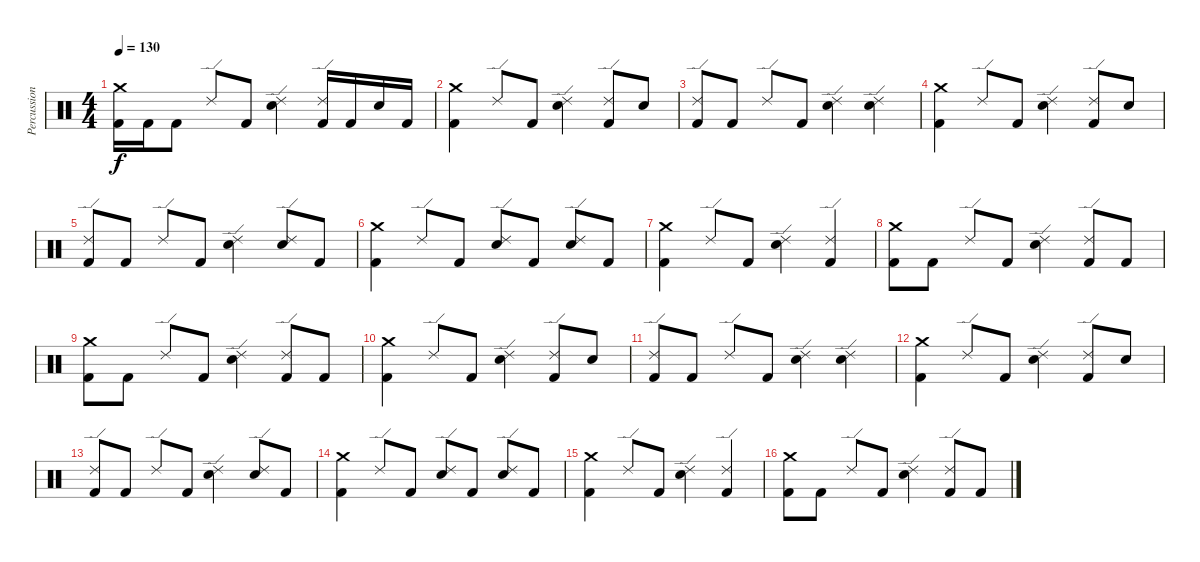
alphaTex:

\track ("Percussion" "Percussion") {instrument percussion}
\staff {score}
\articulation defaults
\ts (4 4)
\tempo 130
\clef neutral
\ks c
("Crash medium (hit)" "Kick (hit) 2").16{dy f} "Kick (hit) 2".16 "Kick (hit) 2".8 "Ride (edge) 2".8 "Kick (hit) 2".8 ("Ride (edge) 2" "Electric Snare (hit)").4 ("Ride (edge) 2" "Kick (hit) 2").16 "Kick (hit) 2".16 "Electric Snare (hit)".16 "Kick (hit) 2".16 |
("Crash medium (hit)" "Kick (hit) 2").4 "Ride (edge) 2".8 "Kick (hit) 2".8 ("Ride (edge) 2" "Electric Snare (hit)").4 ("Kick (hit) 2" "Ride (edge) 2").8 "Electric Snare (hit)".8 |
("Kick (hit) 2" "Ride (edge) 2").8 "Kick (hit) 2".8 "Ride (edge) 2".8 "Kick (hit) 2".8 ("Electric Snare (hit)" "Ride (edge) 2").4 ("Electric Snare (hit)" "Ride (edge) 2").4 |
("Crash medium (hit)" "Kick (hit) 2").4 "Ride (edge) 2".8 "Kick (hit) 2".8 ("Ride (edge) 2" "Electric Snare (hit)").4 ("Kick (hit) 2" "Ride (edge) 2").8 "Electric Snare (hit)".8 |
("Kick (hit) 2" "Ride (edge) 2").8 "Kick (hit) 2".8 "Ride (edge) 2".8 "Kick (hit) 2".8 ("Electric Snare (hit)" "Ride (edge) 2").4 ("Electric Snare (hit)" "Ride (edge) 2").8 "Kick (hit) 2".8 |
("Crash medium (hit)" "Kick (hit) 2").4 "Ride (edge) 2".8 "Kick (hit) 2".8 ("Ride (edge) 2" "Electric Snare (hit)").8 "Kick (hit) 2".8 ("Ride (edge) 2" "Electric Snare (hit)").8 "Kick (hit) 2".8 |
("Crash medium (hit)" "Kick (hit) 2").4 "Ride (edge) 2".8 "Kick (hit) 2".8 ("Ride (edge) 2" "Electric Snare (hit)").4 ("Ride (edge) 2" "Kick (hit) 2").4 |
("Crash medium (hit)" "Kick (hit) 2").8 "Kick (hit) 2".8 "Ride (edge) 2".8 "Kick (hit) 2".8 ("Ride (edge) 2" "Electric Snare (hit)").4 ("Ride (edge) 2" "Kick (hit) 2").8 "Kick (hit) 2".8 |
("Crash medium (hit)" "Kick (hit) 2").8 "Kick (hit) 2".8 "Ride (edge) 2".8 "Kick (hit) 2".8 ("Ride (edge) 2" "Electric Snare (hit)").4 ("Ride (edge) 2" "Kick (hit) 2").8 "Kick (hit) 2".8 |
("Crash medium (hit)" "Kick (hit) 2").4 "Ride (edge) 2".8 "Kick (hit) 2".8 ("Ride (edge) 2" "Electric Snare (hit)").4 ("Kick (hit) 2" "Ride (edge) 2").8 "Electric Snare (hit)".8 |
("Kick (hit) 2" "Ride (edge) 2").8 "Kick (hit) 2".8 "Ride (edge) 2".8 "Kick (hit) 2".8 ("Electric Snare (hit)" "Ride (edge) 2").4 ("Electric Snare (hit)" "Ride (edge) 2").4 |
("Crash medium (hit)" "Kick (hit) 2").4 "Ride (edge) 2".8 "Kick (hit) 2".8 ("Ride (edge) 2" "Electric Snare (hit)").4 ("Kick (hit) 2" "Ride (edge) 2").8 "Electric Snare (hit)".8 |
("Kick (hit) 2" "Ride (edge) 2").8 "Kick (hit) 2".8 "Ride (edge) 2".8 "Kick (hit) 2".8 ("Electric Snare (hit)" "Ride (edge) 2").4 ("Electric Snare (hit)" "Ride (edge) 2").8 "Kick (hit) 2".8 |
("Crash medium (hit)" "Kick (hit) 2").4 "Ride (edge) 2".8 "Kick (hit) 2".8 ("Ride (edge) 2" "Electric Snare (hit)").8 "Kick (hit) 2".8 ("Ride (edge) 2" "Electric Snare (hit)").8 "Kick (hit) 2".8 |
("Crash medium (hit)" "Kick (hit) 2").4 "Ride (edge) 2".8 "Kick (hit) 2".8 ("Ride (edge) 2" "Electric Snare (hit)").4 ("Ride (edge) 2" "Kick (hit) 2").4 |
("Crash medium (hit)" "Kick (hit) 2").8 "Kick (hit) 2".8 "Ride (edge) 2".8 "Kick (hit) 2".8 ("Ride (edge) 2" "Electric Snare (hit)").4 ("Ride (edge) 2" "Kick (hit) 2").8 "Kick (hit) 2".8
